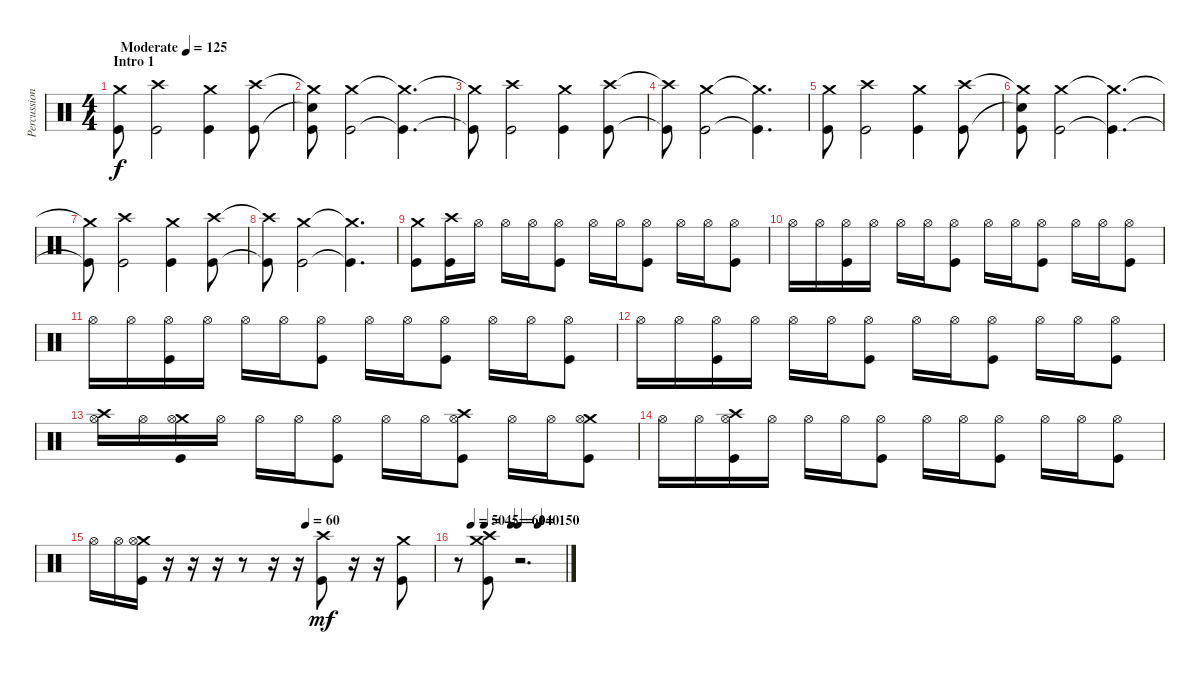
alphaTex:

\track ("Percussion" "Percussion") {instrument percussion}
\staff {score}
\articulation defaults
\ts (4 4)
\section ("" "Intro 1")
\tempo (125 "Moderate")
\clef neutral
\ks c
("Crash medium (hit)" "Kick (hit)").8{dy f} ("Crash high (hit)" "Kick (hit)").2 ("Crash medium (hit)" "Kick (hit)").4 ("Crash high (hit)" "Kick (hit)").8 |
("Crash medium (hit)"{t} "Snare (hit)"{t} "Kick (hit)").8 ("Crash medium (hit)" "Kick (hit)").2 ("Crash medium (hit)"{t} "Kick (hit)"{t}).4{d} |
("Crash medium (hit)"{t} "Kick (hit)"{t}).8 ("Crash high (hit)" "Kick (hit)").2 ("Crash medium (hit)" "Kick (hit)").4 ("Crash high (hit)" "Kick (hit)").8 |
("Crash high (hit)"{t} "Kick (hit)"{t}).8 ("Crash medium (hit)" "Kick (hit)").2 ("Crash medium (hit)"{t} "Kick (hit)"{t}).4{d} |
("Crash medium (hit)" "Kick (hit)").8 ("Crash high (hit)" "Kick (hit)").2 ("Crash medium (hit)" "Kick (hit)").4 ("Crash high (hit)" "Kick (hit)").8 |
("Crash medium (hit)"{t} "Snare (hit)"{t} "Kick (hit)").8 ("Crash medium (hit)" "Kick (hit)").2 ("Crash medium (hit)"{t} "Kick (hit)"{t}).4{d} |
("Crash medium (hit)"{t} "Kick (hit)"{t}).8 ("Crash high (hit)" "Kick (hit)").2 ("Crash medium (hit)" "Kick (hit)").4 ("Crash high (hit)" "Kick (hit)").8 |
("Crash high (hit)"{t} "Kick (hit)"{t}).8 ("Crash medium (hit)" "Kick (hit)").2 ("Crash medium (hit)"{t} "Kick (hit)"{t}).4{d} |
("Crash medium (hit)" "Kick (hit)").8 ("Crash high (hit)" "Kick (hit)").16 "Hi-Hat (open)".16 "Hi-Hat (open)".16 "Hi-Hat (open)".16 ("Hi-Hat (open)" "Kick (hit)").8 "Hi-Hat (open)".16 "Hi-Hat (open)".16 ("Hi-Hat (open)" "Kick (hit)").8 "Hi-Hat (open)".16 "Hi-Hat (open)".16 ("Hi-Hat (open)" "Kick (hit)").8 |
"Hi-Hat (open)".16 "Hi-Hat (open)".16 ("Hi-Hat (open)" "Kick (hit)").16 "Hi-Hat (open)".16 "Hi-Hat (open)".16 "Hi-Hat (open)".16 ("Hi-Hat (open)" "Kick (hit)").8 "Hi-Hat (open)".16 "Hi-Hat (open)".16 ("Hi-Hat (open)" "Kick (hit)").8 "Hi-Hat (open)".16 "Hi-Hat (open)".16 ("Hi-Hat (open)" "Kick (hit)").8 |
"Hi-Hat (open)".16 "Hi-Hat (open)".16 ("Hi-Hat (open)" "Kick (hit)").16 "Hi-Hat (open)".16 "Hi-Hat (open)".16 "Hi-Hat (open)".16 ("Hi-Hat (open)" "Kick (hit)").8 "Hi-Hat (open)".16 "Hi-Hat (open)".16 ("Hi-Hat (open)" "Kick (hit)").8 "Hi-Hat (open)".16 "Hi-Hat (open)".16 ("Hi-Hat (open)" "Kick (hit)").8 |
"Hi-Hat (open)".16 "Hi-Hat (open)".16 ("Hi-Hat (open)" "Kick (hit)").16 "Hi-Hat (open)".16 "Hi-Hat (open)".16 "Hi-Hat (open)".16 ("Hi-Hat (open)" "Kick (hit)").8 "Hi-Hat (open)".16 "Hi-Hat (open)".16 ("Hi-Hat (open)" "Kick (hit)").8 "Hi-Hat (open)".16 "Hi-Hat (open)".16 ("Hi-Hat (open)" "Kick (hit)").8 |
("Crash high (hit)" "Hi-Hat (open)").16 "Hi-Hat (open)".16 ("Crash medium (hit)" "Hi-Hat (open)" "Kick (hit)").16 "Hi-Hat (open)".16 "Hi-Hat (open)".16 "Hi-Hat (open)".16 ("Hi-Hat (open)" "Kick (hit)").8 "Hi-Hat (open)".16 "Hi-Hat (open)".16 ("Crash high (hit)" "Hi-Hat (open)" "Kick (hit)").8 "Hi-Hat (open)".16 "Hi-Hat (open)".16 ("Crash medium (hit)" "Hi-Hat (open)" "Kick (hit)").8 |
"Hi-Hat (open)".16 "Hi-Hat (open)".16 ("Crash high (hit)" "Hi-Hat (open)" "Kick (hit)").16 "Hi-Hat (open)".16 "Hi-Hat (open)".16 "Hi-Hat (open)".16 ("Hi-Hat (open)" "Kick (hit)").8 "Hi-Hat (open)".16 "Hi-Hat (open)".16 ("Hi-Hat (open)" "Kick (hit)").8 "Hi-Hat (open)".16 "Hi-Hat (open)".16 ("Hi-Hat (open)" "Kick (hit)").8 |
\tempo (60 0.625)
"Hi-Hat (open)".16 "Hi-Hat (open)".16 ("Crash medium (hit)" "Hi-Hat (open)" "Kick (hit)").16 r.16 r.16 r.16 r.8 r.16 r.16 ("Crash high (hit)" "Kick (hit)").8{dy mf} r.16 r.16 ("Crash medium (hit)" "Kick (hit)").8 |
\tempo (50 0.125)
\tempo (45 0.25)
\tempo (60 0.5)
\tempo (140 0.5625)
\tempo (150 0.75)
r.8 ("Crash medium (hit)" "Crash high (hit)" "Kick (hit)").8 r.2{d}
